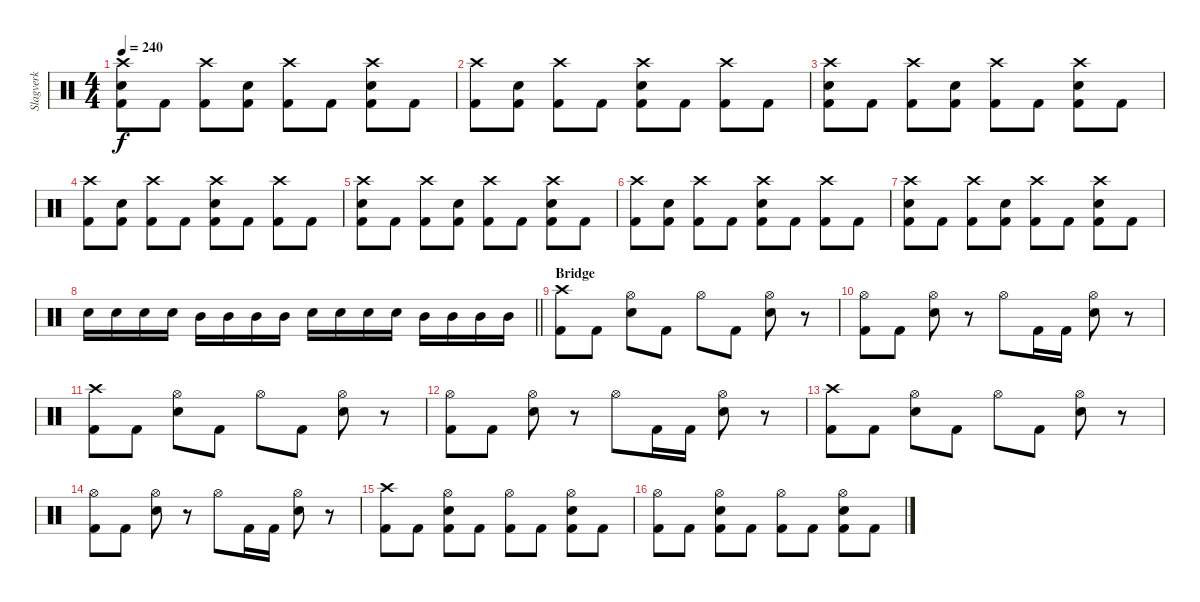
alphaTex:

\track ("Slagverk" "Slagverk") {instrument percussion}
\staff {score}
\articulation defaults
\ts (4 4)
\tempo 240
\clef neutral
\ks c
("Crash high (hit)" "Electric Snare (hit)" "Kick (hit) 2").8{dy f} "Kick (hit) 2".8 ("Crash high (hit)" "Kick (hit) 2").8 ("Electric Snare (hit)" "Kick (hit) 2").8 ("Crash high (hit)" "Kick (hit) 2").8 "Kick (hit) 2".8 ("Crash high (hit)" "Electric Snare (hit)" "Kick (hit) 2").8 "Kick (hit) 2".8 |
("Crash high (hit)" "Kick (hit) 2").8 ("Electric Snare (hit)" "Kick (hit) 2").8 ("Crash high (hit)" "Kick (hit) 2").8 "Kick (hit) 2".8 ("Crash high (hit)" "Electric Snare (hit)" "Kick (hit) 2").8 "Kick (hit) 2".8 ("Crash high (hit)" "Kick (hit) 2").8 "Kick (hit) 2".8 |
("Crash high (hit)" "Electric Snare (hit)" "Kick (hit) 2").8 "Kick (hit) 2".8 ("Crash high (hit)" "Kick (hit) 2").8 ("Electric Snare (hit)" "Kick (hit) 2").8 ("Crash high (hit)" "Kick (hit) 2").8 "Kick (hit) 2".8 ("Crash high (hit)" "Electric Snare (hit)" "Kick (hit) 2").8 "Kick (hit) 2".8 |
("Crash high (hit)" "Kick (hit) 2").8 ("Electric Snare (hit)" "Kick (hit) 2").8 ("Crash high (hit)" "Kick (hit) 2").8 "Kick (hit) 2".8 ("Crash high (hit)" "Electric Snare (hit)" "Kick (hit) 2").8 "Kick (hit) 2".8 ("Crash high (hit)" "Kick (hit) 2").8 "Kick (hit) 2".8 |
("Crash high (hit)" "Electric Snare (hit)" "Kick (hit) 2").8 "Kick (hit) 2".8 ("Crash high (hit)" "Kick (hit) 2").8 ("Electric Snare (hit)" "Kick (hit) 2").8 ("Crash high (hit)" "Kick (hit) 2").8 "Kick (hit) 2".8 ("Crash high (hit)" "Electric Snare (hit)" "Kick (hit) 2").8 "Kick (hit) 2".8 |
("Crash high (hit)" "Kick (hit) 2").8 ("Electric Snare (hit)" "Kick (hit) 2").8 ("Crash high (hit)" "Kick (hit) 2").8 "Kick (hit) 2".8 ("Crash high (hit)" "Electric Snare (hit)" "Kick (hit) 2").8 "Kick (hit) 2".8 ("Crash high (hit)" "Kick (hit) 2").8 "Kick (hit) 2".8 |
("Crash high (hit)" "Electric Snare (hit)" "Kick (hit) 2").8 "Kick (hit) 2".8 ("Crash high (hit)" "Kick (hit) 2").8 ("Electric Snare (hit)" "Kick (hit) 2").8 ("Crash high (hit)" "Kick (hit) 2").8 "Kick (hit) 2".8 ("Crash high (hit)" "Electric Snare (hit)" "Kick (hit) 2").8 "Kick (hit) 2".8 |
\barLineRight lightlight "Electric Snare (hit)".16 "Electric Snare (hit)".16 "Electric Snare (hit)".16 "Electric Snare (hit)".16 "Mid Tom (hit)".16 "Mid Tom (hit)".16 "Mid Tom (hit)".16 "Mid Tom (hit)".16 "Electric Snare (hit)".16 "Electric Snare (hit)".16 "Electric Snare (hit)".16 "Electric Snare (hit)".16 "Mid Tom (hit)".16 "Mid Tom (hit)".16 "Mid Tom (hit)".16 "Mid Tom (hit)".16
|
\section ("" "Bridge")
("Crash high (hit)" "Kick (hit) 2").8 "Kick (hit) 2".8 ("Hi-Hat (open)" "Electric Snare (hit)").8 "Kick (hit) 2".8 "Hi-Hat (open)".8 "Kick (hit) 2".8 ("Hi-Hat (open)" "Electric Snare (hit)").8 r.8 |
("Hi-Hat (open)" "Kick (hit) 2").8 "Kick (hit) 2".8 ("Hi-Hat (open)" "Electric Snare (hit)").8 r.8 "Hi-Hat (open)".8 "Kick (hit) 2".16 "Kick (hit) 2".16 ("Hi-Hat (open)" "Electric Snare (hit)").8 r.8 |
("Crash high (hit)" "Kick (hit) 2").8 "Kick (hit) 2".8 ("Hi-Hat (open)" "Electric Snare (hit)").8 "Kick (hit) 2".8 "Hi-Hat (open)".8 "Kick (hit) 2".8 ("Hi-Hat (open)" "Electric Snare (hit)").8 r.8 |
("Hi-Hat (open)" "Kick (hit) 2").8 "Kick (hit) 2".8 ("Hi-Hat (open)" "Electric Snare (hit)").8 r.8 "Hi-Hat (open)".8 "Kick (hit) 2".16 "Kick (hit) 2".16 ("Hi-Hat (open)" "Electric Snare (hit)").8 r.8 |
("Crash high (hit)" "Kick (hit) 2").8 "Kick (hit) 2".8 ("Hi-Hat (open)" "Electric Snare (hit)").8 "Kick (hit) 2".8 "Hi-Hat (open)".8 "Kick (hit) 2".8 ("Hi-Hat (open)" "Electric Snare (hit)").8 r.8 |
("Hi-Hat (open)" "Kick (hit) 2").8 "Kick (hit) 2".8 ("Hi-Hat (open)" "Electric Snare (hit)").8 r.8 "Hi-Hat (open)".8 "Kick (hit) 2".16 "Kick (hit) 2".16 ("Hi-Hat (open)" "Electric Snare (hit)").8 r.8 |
("Crash high (hit)" "Kick (hit) 2").8 "Kick (hit) 2".8 ("Hi-Hat (open)" "Electric Snare (hit)" "Kick (hit) 2").8 "Kick (hit) 2".8 ("Hi-Hat (open)" "Kick (hit) 2").8 "Kick (hit) 2".8 ("Hi-Hat (open)" "Electric Snare (hit)" "Kick (hit) 2").8 "Kick (hit) 2".8 |
("Hi-Hat (open)" "Kick (hit) 2").8 "Kick (hit) 2".8 ("Hi-Hat (open)" "Electric Snare (hit)" "Kick (hit) 2").8 "Kick (hit) 2".8 ("Hi-Hat (open)" "Kick (hit) 2").8 "Kick (hit) 2".8 ("Hi-Hat (open)" "Electric Snare (hit)" "Kick (hit) 2").8 "Kick (hit) 2".8
